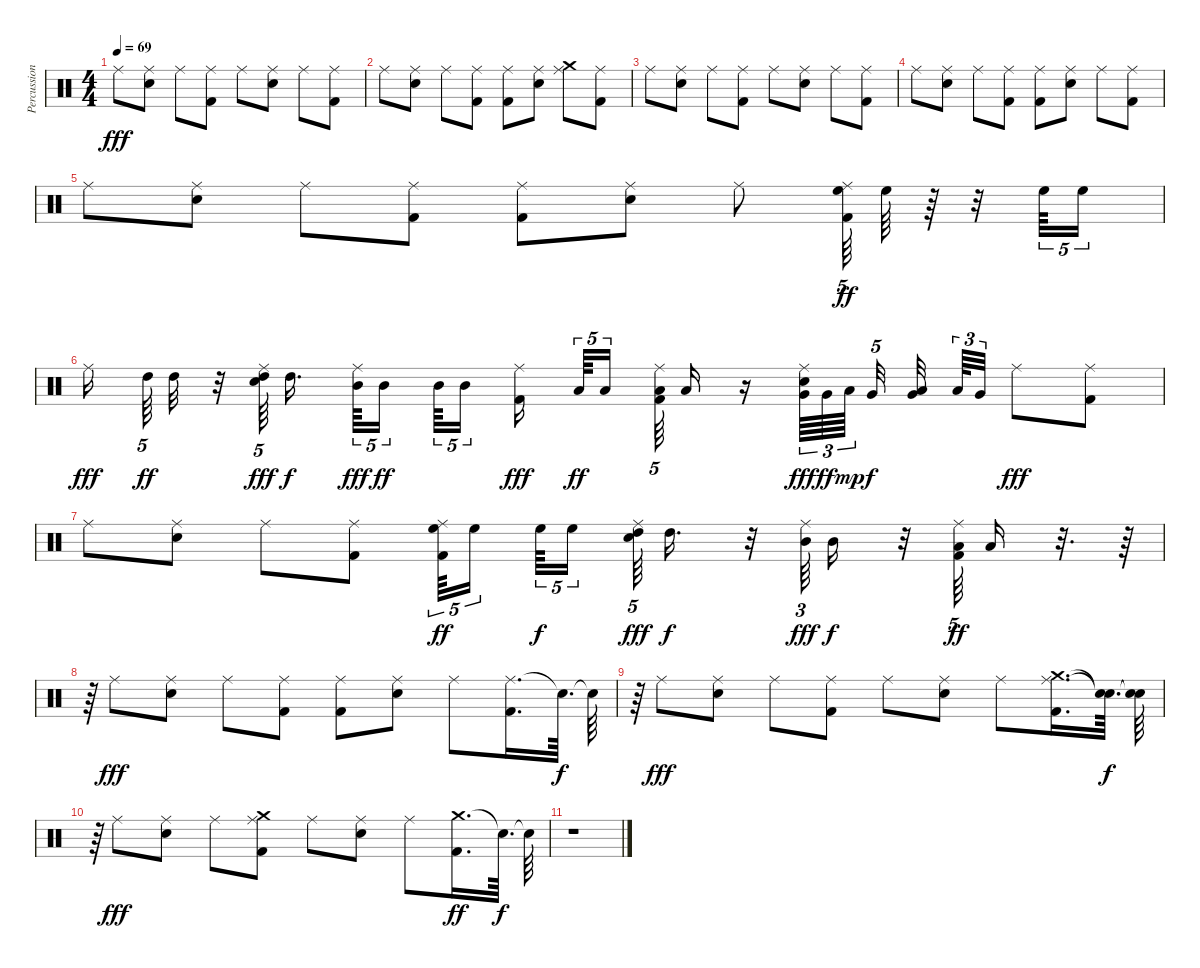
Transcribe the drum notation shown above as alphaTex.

\track ("Percussioni" "Percussion") {instrument percussion}
\staff {score}
\articulation defaults
\ts (4 4)
\tempo 69
\clef neutral
\ks c "Ride (middle)".8{dy fff}
("Ride (middle)" "Snare (hit) 2").8 "Ride (middle)".8 ("Ride (middle)" "Kick (hit) 2").8 "Ride (middle)".8 ("Ride (middle)" "Snare (hit) 2").8 "Ride (middle)".8 ("Ride (middle)" "Kick (hit) 2").8 |
"Ride (middle)".8 ("Ride (middle)" "Snare (hit) 2").8 "Ride (middle)".8 ("Ride (middle)" "Kick (hit) 2").8 ("Ride (middle)" "Kick (hit) 2").8 ("Ride (middle)" "Snare (hit) 2").8 ("Crash medium (hit)" "Ride (middle)").8 ("Ride (middle)" "Kick (hit) 2").8 |
"Ride (middle)".8 ("Ride (middle)" "Snare (hit) 2").8 "Ride (middle)".8 ("Ride (middle)" "Kick (hit) 2").8 "Ride (middle)".8 ("Ride (middle)" "Snare (hit) 2").8 "Ride (middle)".8 ("Ride (middle)" "Kick (hit) 2").8 |
"Ride (middle)".8 ("Ride (middle)" "Snare (hit) 2").8 "Ride (middle)".8 ("Ride (middle)" "Kick (hit) 2").8 ("Ride (middle)" "Kick (hit) 2").8 ("Ride (middle)" "Snare (hit) 2").8 "Ride (middle)".8 ("Ride (middle)" "Kick (hit) 2").8 |
"Ride (middle)".8 ("Ride (middle)" "Snare (hit) 2").8 "Ride (middle)".8 ("Ride (middle)" "Kick (hit) 2").8 ("Ride (middle)" "Kick (hit) 2").8 ("Ride (middle)" "Snare (hit) 2").8 "Ride (middle)".8 ("Ride (middle)" "Kick (hit) 2" "High Floor Tom (hit)").64{tu (5 4) dy ff} "High Floor Tom (hit)".64 r.64 r.32 "High Floor Tom (hit)".64{tu (5 4)} "High Floor Tom (hit)".16{tu (5 4)} |
"Ride (middle)".16{dy fff beam splitsecondary} "High Tom (hit)".64{tu (5 4) dy ff} "High Tom (hit)".32 r.32 ("High Tom (hit)" "Ride (middle)" "Snare (hit) 2").64{tu (5 4) dy fff beam splitsecondary} "High Tom (hit)".16{d dy f} ("Mid Tom (hit)" "Ride (middle)").64{tu (5 4) dy fff} "Mid Tom (hit)".16{tu (5 4) dy ff beam splitsecondary} "Mid Tom (hit)".64{tu (5 4)} "Mid Tom (hit)".16{tu (5 4) beam splitsecondary} ("Ride (middle)" "Kick (hit) 2").16{dy fff beam splitsecondary} "Low Tom (hit)".64{tu (5 4) dy ff} "Low Tom (hit)".16{tu (5 4) beam splitsecondary} ("Ride (middle)" "Kick (hit) 2" "Low Tom (hit)").64{tu (5 4)} "Low Tom (hit)".16 r.16 ("Very Low Tom (hit)" "Ride (middle)" "Snare (hit) 2").64{tu (3 2) dy fff} "Very Low Tom (hit)".64{tu (3 2) dy ff} "Low Tom (hit)".64{tu (3 2) dy mp beam splitsecondary} "Very Low Tom (hit)".32{tu (5 4) dy f beam splitsecondary} ("Low Tom (hit)" "Very Low Tom (hit)").32{beam splitsecondary} "Low Tom (hit)".64{tu (3 2)} "Very Low Tom (hit)".32{tu (3 2)} "Ride (middle)".8{dy fff} ("Ride (middle)" "Kick (hit) 2").8 |
"Ride (middle)".8 ("Ride (middle)" "Snare (hit) 2").8 "Ride (middle)".8 ("Ride (middle)" "Kick (hit) 2").8 ("Ride (middle)" "Kick (hit) 2" "High Floor Tom (hit)").64{tu (5 4) dy ff} "High Floor Tom (hit)".16{tu (5 4) beam splitsecondary} "High Floor Tom (hit)".64{tu (5 4) dy f} "High Floor Tom (hit)".16{tu (5 4) beam splitsecondary} ("Ride (middle)" "Snare (hit) 2" "High Tom (hit)").64{tu (5 4) dy fff} "High Tom (hit)".16{d dy f} r.32 ("Ride (middle)" "Mid Tom (hit)").64{tu (3 2) dy fff} "Mid Tom (hit)".16{dy f} r.32 ("Ride (middle)" "Kick (hit) 2" "Low Tom (hit)").64{tu (5 4) dy ff} "Low Tom (hit)".16 r.32{d} r.64 |
r.64 "Ride (middle)".8{dy fff} ("Ride (middle)" "Snare (hit) 2").8 "Ride (middle)".8 ("Ride (middle)" "Kick (hit) 2").8 ("Ride (middle)" "Kick (hit) 2").8 ("Ride (middle)" "Snare (hit) 2").8 "Ride (middle)".8 ("Ride (middle)" "Kick (hit) 2").16{d} "Snare (hit)"{t}.64{d dy f} "Snare (hit)"{t}.64 |
r.64 "Ride (middle)".8{dy fff} ("Ride (middle)" "Snare (hit) 2").8 "Ride (middle)".8 ("Ride (middle)" "Kick (hit) 2").8 "Ride (middle)".8 ("Ride (middle)" "Snare (hit) 2").8 "Ride (middle)".8 ("Crash medium (hit)" "Ride (middle)" "Kick (hit) 2").16{d} ("Snare (hit)"{t} "Snare (hit)"{t}).64{d dy f} ("Snare (hit)"{t} "Snare (hit)"{t}).64 |
r.64 "Ride (middle)".8{dy fff} ("Ride (middle)" "Snare (hit) 2").8 "Ride (middle)".8 ("Crash medium (hit)" "Ride (middle)" "Kick (hit) 2").8 "Ride (middle)".8 ("Ride (middle)" "Snare (hit) 2").8 "Ride (middle)".8 ("Crash medium (hit)" "Kick (hit) 2").16{d dy ff} "Snare (hit)"{t}.64{d dy f} "Snare (hit)"{t}.64 |
r.1
